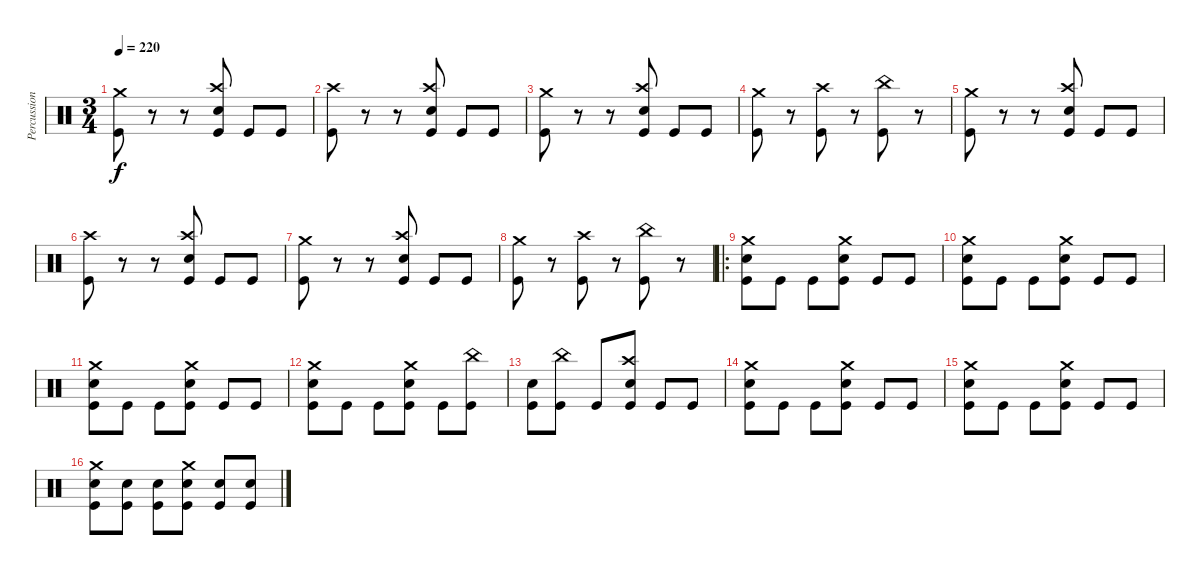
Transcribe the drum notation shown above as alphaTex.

\track ("Percussion" "Percussion") {instrument percussion}
\staff {score}
\articulation defaults
\ts (3 4)
\tempo 220
\clef neutral
\ks c
("Crash medium (hit)" "Kick (hit)").8{dy f} r.8 r.8 ("Crash high (hit)" "Electric Snare (hit)" "Kick (hit)").8 "Kick (hit)".8 "Kick (hit)".8 |
("Crash high (hit)" "Kick (hit)").8 r.8 r.8 ("Crash high (hit)" "Electric Snare (hit)" "Kick (hit)").8 "Kick (hit)".8 "Kick (hit)".8 |
("Crash medium (hit)" "Kick (hit)").8 r.8 r.8 ("Crash high (hit)" "Electric Snare (hit)" "Kick (hit)").8 "Kick (hit)".8 "Kick (hit)".8 |
("Crash medium (hit)" "Kick (hit)").8 r.8 ("Crash high (hit)" "Kick (hit)").8 r.8 ("China (hit)" "Kick (hit)").8 r.8 |
("Crash medium (hit)" "Kick (hit)").8 r.8 r.8 ("Crash high (hit)" "Electric Snare (hit)" "Kick (hit)").8 "Kick (hit)".8 "Kick (hit)".8 |
("Crash high (hit)" "Kick (hit)").8 r.8 r.8 ("Crash high (hit)" "Electric Snare (hit)" "Kick (hit)").8 "Kick (hit)".8 "Kick (hit)".8 |
("Crash medium (hit)" "Kick (hit)").8 r.8 r.8 ("Crash high (hit)" "Electric Snare (hit)" "Kick (hit)").8 "Kick (hit)".8 "Kick (hit)".8 |
("Crash medium (hit)" "Kick (hit)").8 r.8 ("Crash high (hit)" "Kick (hit)").8 r.8 ("China (hit)" "Kick (hit)").8 r.8 |
\ro
("Crash medium (hit)" "Electric Snare (hit)" "Kick (hit)").8 "Kick (hit)".8 "Kick (hit)".8 ("Crash medium (hit)" "Electric Snare (hit)" "Kick (hit)").8 "Kick (hit)".8 "Kick (hit)".8 |
("Crash medium (hit)" "Electric Snare (hit)" "Kick (hit)").8 "Kick (hit)".8 "Kick (hit)".8 ("Crash medium (hit)" "Electric Snare (hit)" "Kick (hit)").8 "Kick (hit)".8 "Kick (hit)".8 |
("Crash medium (hit)" "Electric Snare (hit)" "Kick (hit)").8 "Kick (hit)".8 "Kick (hit)".8 ("Crash medium (hit)" "Electric Snare (hit)" "Kick (hit)").8 "Kick (hit)".8 "Kick (hit)".8 |
("Crash medium (hit)" "Electric Snare (hit)" "Kick (hit)").8 "Kick (hit)".8 "Kick (hit)".8 ("Crash medium (hit)" "Electric Snare (hit)" "Kick (hit)").8 "Kick (hit)".8 ("China (hit)" "Kick (hit)").8 |
("Electric Snare (hit)" "Kick (hit)").8 ("China (hit)" "Kick (hit)").8 "Kick (hit)".8 ("Crash high (hit)" "Electric Snare (hit)" "Kick (hit)").8 "Kick (hit)".8 "Kick (hit)".8 |
("Crash medium (hit)" "Electric Snare (hit)" "Kick (hit)").8 "Kick (hit)".8 "Kick (hit)".8 ("Crash medium (hit)" "Electric Snare (hit)" "Kick (hit)").8 "Kick (hit)".8 "Kick (hit)".8 |
("Crash medium (hit)" "Electric Snare (hit)" "Kick (hit)").8 "Kick (hit)".8 "Kick (hit)".8 ("Crash medium (hit)" "Electric Snare (hit)" "Kick (hit)").8 "Kick (hit)".8 "Kick (hit)".8 |
("Crash medium (hit)" "Electric Snare (hit)" "Kick (hit)").8 ("Electric Snare (hit)" "Kick (hit)").8 ("Electric Snare (hit)" "Kick (hit)").8 ("Crash medium (hit)" "Electric Snare (hit)" "Kick (hit)").8 ("Electric Snare (hit)" "Kick (hit)").8 ("Electric Snare (hit)" "Kick (hit)").8
